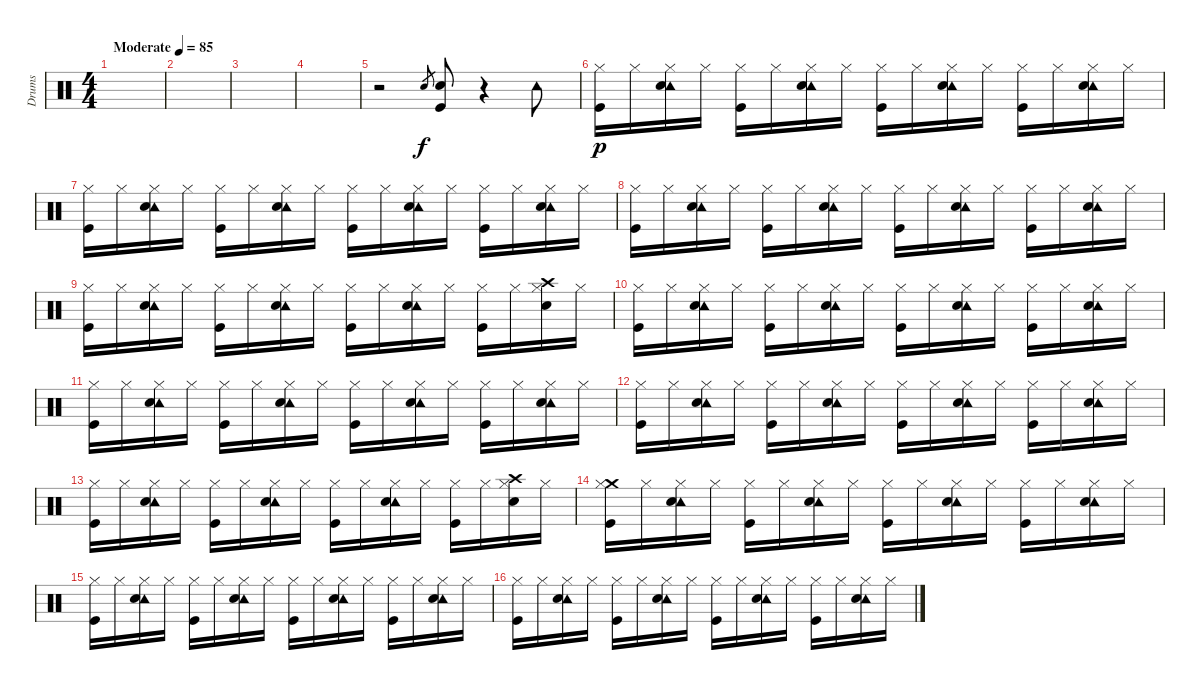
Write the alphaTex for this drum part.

\track ("Drums" "Drums") {instrument percussion}
\staff {score}
\articulation defaults
\ts (4 4)
\tempo (85 "Moderate")
\clef neutral
\ks c
|
|
|
|
r.2 "Snare (hit) 2".8{gr} ("Snare (hit) 2" "Kick (hit)").8{dy f} r.4 "Tambourine (hit)".8 |
("Hi-Hat (closed)" "Kick (hit)").16{dy p} "Hi-Hat (closed)".16 ("Tambourine (hit)" "Hi-Hat (closed)" "Snare (hit) 2").16 "Hi-Hat (closed)".16 ("Hi-Hat (closed)" "Kick (hit)").16 "Hi-Hat (closed)".16 ("Tambourine (hit)" "Hi-Hat (closed)" "Snare (hit) 2").16 "Hi-Hat (closed)".16 ("Hi-Hat (closed)" "Kick (hit)").16 "Hi-Hat (closed)".16 ("Tambourine (hit)" "Hi-Hat (closed)" "Snare (hit) 2").16 "Hi-Hat (closed)".16 ("Hi-Hat (closed)" "Kick (hit)").16 "Hi-Hat (closed)".16 ("Tambourine (hit)" "Hi-Hat (closed)" "Snare (hit) 2").16 "Hi-Hat (closed)".16 |
("Hi-Hat (closed)" "Kick (hit)").16 "Hi-Hat (closed)".16 ("Tambourine (hit)" "Hi-Hat (closed)" "Snare (hit) 2").16 "Hi-Hat (closed)".16 ("Hi-Hat (closed)" "Kick (hit)").16 "Hi-Hat (closed)".16 ("Tambourine (hit)" "Hi-Hat (closed)" "Snare (hit) 2").16 "Hi-Hat (closed)".16 ("Hi-Hat (closed)" "Kick (hit)").16 "Hi-Hat (closed)".16 ("Tambourine (hit)" "Hi-Hat (closed)" "Snare (hit) 2").16 "Hi-Hat (closed)".16 ("Hi-Hat (closed)" "Kick (hit)").16 "Hi-Hat (closed)".16 ("Tambourine (hit)" "Hi-Hat (closed)" "Snare (hit) 2").16 "Hi-Hat (closed)".16 |
("Hi-Hat (closed)" "Kick (hit)").16 "Hi-Hat (closed)".16 ("Tambourine (hit)" "Hi-Hat (closed)" "Snare (hit) 2").16 "Hi-Hat (closed)".16 ("Hi-Hat (closed)" "Kick (hit)").16 "Hi-Hat (closed)".16 ("Tambourine (hit)" "Hi-Hat (closed)" "Snare (hit) 2").16 "Hi-Hat (closed)".16 ("Hi-Hat (closed)" "Kick (hit)").16 "Hi-Hat (closed)".16 ("Tambourine (hit)" "Hi-Hat (closed)" "Snare (hit) 2").16 "Hi-Hat (closed)".16 ("Hi-Hat (closed)" "Kick (hit)").16 "Hi-Hat (closed)".16 ("Tambourine (hit)" "Hi-Hat (closed)" "Snare (hit) 2").16 "Hi-Hat (closed)".16 |
("Hi-Hat (closed)" "Kick (hit)").16 "Hi-Hat (closed)".16 ("Tambourine (hit)" "Hi-Hat (closed)" "Snare (hit) 2").16 "Hi-Hat (closed)".16 ("Hi-Hat (closed)" "Kick (hit)").16 "Hi-Hat (closed)".16 ("Tambourine (hit)" "Hi-Hat (closed)" "Snare (hit) 2").16 "Hi-Hat (closed)".16 ("Hi-Hat (closed)" "Kick (hit)").16 "Hi-Hat (closed)".16 ("Tambourine (hit)" "Hi-Hat (closed)" "Snare (hit) 2").16 "Hi-Hat (closed)".16 ("Hi-Hat (closed)" "Kick (hit)").16 "Hi-Hat (closed)".16 ("Crash high (hit)" "Hi-Hat (closed)" "Snare (hit) 2").16 "Hi-Hat (closed)".16 |
("Hi-Hat (closed)" "Kick (hit)").16 "Hi-Hat (closed)".16 ("Tambourine (hit)" "Hi-Hat (closed)" "Snare (hit) 2").16 "Hi-Hat (closed)".16 ("Hi-Hat (closed)" "Kick (hit)").16 "Hi-Hat (closed)".16 ("Tambourine (hit)" "Hi-Hat (closed)" "Snare (hit) 2").16 "Hi-Hat (closed)".16 ("Hi-Hat (closed)" "Kick (hit)").16 "Hi-Hat (closed)".16 ("Tambourine (hit)" "Hi-Hat (closed)" "Snare (hit) 2").16 "Hi-Hat (closed)".16 ("Hi-Hat (closed)" "Kick (hit)").16 "Hi-Hat (closed)".16 ("Tambourine (hit)" "Hi-Hat (closed)" "Snare (hit) 2").16 "Hi-Hat (closed)".16 |
("Hi-Hat (closed)" "Kick (hit)").16 "Hi-Hat (closed)".16 ("Tambourine (hit)" "Hi-Hat (closed)" "Snare (hit) 2").16 "Hi-Hat (closed)".16 ("Hi-Hat (closed)" "Kick (hit)").16 "Hi-Hat (closed)".16 ("Tambourine (hit)" "Hi-Hat (closed)" "Snare (hit) 2").16 "Hi-Hat (closed)".16 ("Hi-Hat (closed)" "Kick (hit)").16 "Hi-Hat (closed)".16 ("Tambourine (hit)" "Hi-Hat (closed)" "Snare (hit) 2").16 "Hi-Hat (closed)".16 ("Hi-Hat (closed)" "Kick (hit)").16 "Hi-Hat (closed)".16 ("Tambourine (hit)" "Hi-Hat (closed)" "Snare (hit) 2").16 "Hi-Hat (closed)".16 |
("Hi-Hat (closed)" "Kick (hit)").16 "Hi-Hat (closed)".16 ("Tambourine (hit)" "Hi-Hat (closed)" "Snare (hit) 2").16 "Hi-Hat (closed)".16 ("Hi-Hat (closed)" "Kick (hit)").16 "Hi-Hat (closed)".16 ("Tambourine (hit)" "Hi-Hat (closed)" "Snare (hit) 2").16 "Hi-Hat (closed)".16 ("Hi-Hat (closed)" "Kick (hit)").16 "Hi-Hat (closed)".16 ("Tambourine (hit)" "Hi-Hat (closed)" "Snare (hit) 2").16 "Hi-Hat (closed)".16 ("Hi-Hat (closed)" "Kick (hit)").16 "Hi-Hat (closed)".16 ("Tambourine (hit)" "Hi-Hat (closed)" "Snare (hit) 2").16 "Hi-Hat (closed)".16 |
("Hi-Hat (closed)" "Kick (hit)").16 "Hi-Hat (closed)".16 ("Tambourine (hit)" "Hi-Hat (closed)" "Snare (hit) 2").16 "Hi-Hat (closed)".16 ("Hi-Hat (closed)" "Kick (hit)").16 "Hi-Hat (closed)".16 ("Tambourine (hit)" "Hi-Hat (closed)" "Snare (hit) 2").16 "Hi-Hat (closed)".16 ("Hi-Hat (closed)" "Kick (hit)").16 "Hi-Hat (closed)".16 ("Tambourine (hit)" "Hi-Hat (closed)" "Snare (hit) 2").16 "Hi-Hat (closed)".16 ("Hi-Hat (closed)" "Kick (hit)").16 "Hi-Hat (closed)".16 ("Crash high (hit)" "Hi-Hat (closed)" "Snare (hit) 2").16 "Hi-Hat (closed)".16 |
("Crash medium (hit)" "Hi-Hat (closed)" "Kick (hit)").16 "Hi-Hat (closed)".16 ("Tambourine (hit)" "Hi-Hat (closed)" "Snare (hit) 2").16 "Hi-Hat (closed)".16 ("Hi-Hat (closed)" "Kick (hit)").16 "Hi-Hat (closed)".16 ("Tambourine (hit)" "Hi-Hat (closed)" "Snare (hit) 2").16 "Hi-Hat (closed)".16 ("Hi-Hat (closed)" "Kick (hit)").16 "Hi-Hat (closed)".16 ("Tambourine (hit)" "Hi-Hat (closed)" "Snare (hit) 2").16 "Hi-Hat (closed)".16 ("Hi-Hat (closed)" "Kick (hit)").16 "Hi-Hat (closed)".16 ("Tambourine (hit)" "Hi-Hat (closed)" "Snare (hit) 2").16 "Hi-Hat (closed)".16 |
("Hi-Hat (closed)" "Kick (hit)").16 "Hi-Hat (closed)".16 ("Tambourine (hit)" "Hi-Hat (closed)" "Snare (hit) 2").16 "Hi-Hat (closed)".16 ("Hi-Hat (closed)" "Kick (hit)").16 "Hi-Hat (closed)".16 ("Tambourine (hit)" "Hi-Hat (closed)" "Snare (hit) 2").16 "Hi-Hat (closed)".16 ("Hi-Hat (closed)" "Kick (hit)").16 "Hi-Hat (closed)".16 ("Tambourine (hit)" "Hi-Hat (closed)" "Snare (hit) 2").16 "Hi-Hat (closed)".16 ("Hi-Hat (closed)" "Kick (hit)").16 "Hi-Hat (closed)".16 ("Tambourine (hit)" "Hi-Hat (closed)" "Snare (hit) 2").16 "Hi-Hat (closed)".16 |
("Hi-Hat (closed)" "Kick (hit)").16 "Hi-Hat (closed)".16 ("Tambourine (hit)" "Hi-Hat (closed)" "Snare (hit) 2").16 "Hi-Hat (closed)".16 ("Hi-Hat (closed)" "Kick (hit)").16 "Hi-Hat (closed)".16 ("Tambourine (hit)" "Hi-Hat (closed)" "Snare (hit) 2").16 "Hi-Hat (closed)".16 ("Hi-Hat (closed)" "Kick (hit)").16 "Hi-Hat (closed)".16 ("Tambourine (hit)" "Hi-Hat (closed)" "Snare (hit) 2").16 "Hi-Hat (closed)".16 ("Hi-Hat (closed)" "Kick (hit)").16 "Hi-Hat (closed)".16 ("Tambourine (hit)" "Hi-Hat (closed)" "Snare (hit) 2").16 "Hi-Hat (closed)".16
